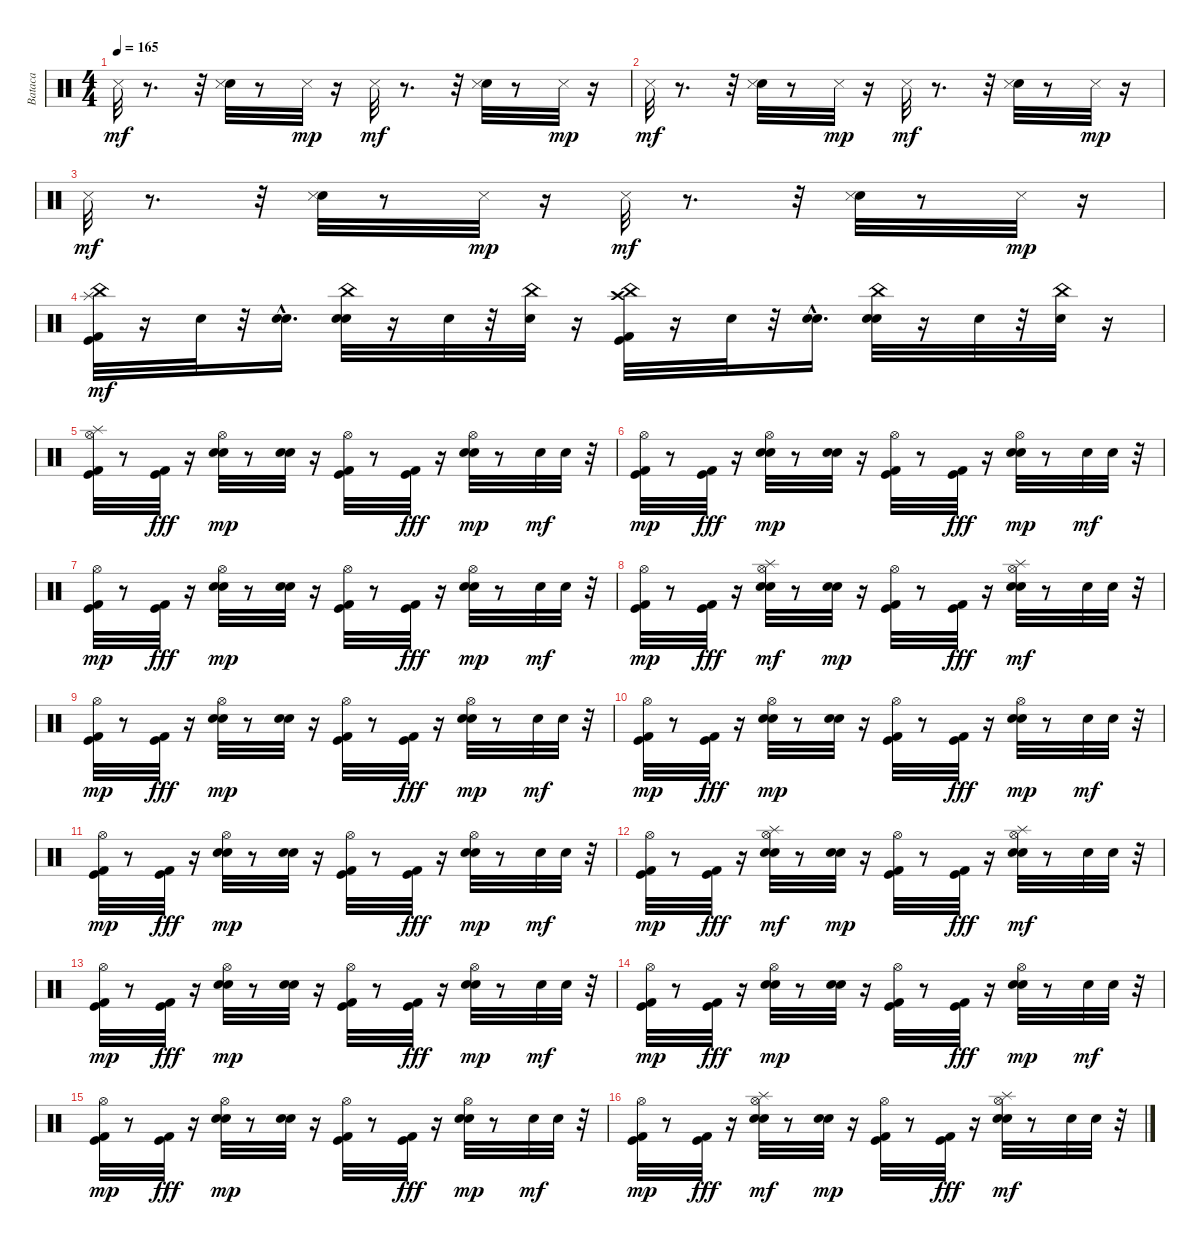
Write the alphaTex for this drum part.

\track ("Bataca" "Bataca") {instrument percussion}
\staff {score}
\articulation defaults
\ts (4 4)
\tempo 165
\clef neutral
\ks c "Snare (side stick) 3".32{dy mf}
r.8{d} r.32 ("Hand Clap (hit)" "Snare (side stick) 3").32 r.8 "Snare (side stick) 3".32{dy mp} r.16 "Snare (side stick) 3".32{dy mf} r.8{d} r.32 ("Hand Clap (hit)" "Snare (side stick) 3").32 r.8 "Snare (side stick) 3".32{dy mp} r.16 |
"Snare (side stick) 3".32{dy mf} r.8{d} r.32 ("Hand Clap (hit)" "Snare (side stick) 3").32 r.8 "Snare (side stick) 3".32{dy mp} r.16 "Snare (side stick) 3".32{dy mf} r.8{d} r.32 ("Hand Clap (hit)" "Snare (side stick) 3").32 r.8 "Snare (side stick) 3".32{dy mp} r.16 |
"Snare (side stick) 3".32{dy mf} r.8{d} r.32 ("Hand Clap (hit)" "Snare (side stick) 3").32 r.8 "Snare (side stick) 3".32{dy mp} r.16 "Snare (side stick) 3".32{dy mf} r.8{d} r.32 ("Hand Clap (hit)" "Snare (side stick) 3").32 r.8 "Snare (side stick) 3".32{dy mp} r.16 |
("Kick (hit) 2" "Kick (hit)" "China (hit)" "Splash (hit)").32{dy mf} r.16 "Snare (hit) 2".32 r.32 ("Snare (hit) 2"{hac} "Snare (hit) 2").16{d} ("Snare (hit) 2" "China (hit)" "Hand Clap (hit)").32 r.16 "Snare (hit) 2".32 r.32 ("China (hit)" "Snare (hit) 2").32 r.16 ("China (hit)" "Kick (hit) 2" "Kick (hit)" "Crash high (hit)").32 r.16 "Snare (hit) 2".32 r.32 ("Snare (hit) 2"{hac} "Snare (hit) 2").16{d} ("China (hit)" "Hand Clap (hit)" "Snare (hit) 2").32 r.16 "Snare (hit) 2".32 r.32 ("China (hit)" "Snare (hit) 2").32 r.16 |
("Kick (hit) 2" "Kick (hit)" "Hi-Hat (open)" "Splash (hit)").32 r.8 ("Kick (hit) 2" "Kick (hit)").32{dy fff} r.16 ("Snare (hit) 2" "Hand Clap (hit)" "Hi-Hat (open)").32{dy mp} r.8 ("Snare (hit) 2" "Hand Clap (hit)").32 r.16 ("Kick (hit) 2" "Kick (hit)" "Hi-Hat (open)").32 r.8 ("Kick (hit) 2" "Kick (hit)").32{dy fff} r.16 ("Snare (hit) 2" "Hand Clap (hit)" "Hi-Hat (open)").32{dy mp} r.8 "Snare (hit) 2".32{dy mf} "Hand Clap (hit)".32 r.32 |
("Kick (hit) 2" "Kick (hit)" "Hi-Hat (open)").32{dy mp} r.8 ("Kick (hit) 2" "Kick (hit)").32{dy fff} r.16 ("Snare (hit) 2" "Hand Clap (hit)" "Hi-Hat (open)").32{dy mp} r.8 ("Snare (hit) 2" "Hand Clap (hit)").32 r.16 ("Kick (hit) 2" "Kick (hit)" "Hi-Hat (open)").32 r.8 ("Kick (hit) 2" "Kick (hit)").32{dy fff} r.16 ("Snare (hit) 2" "Hand Clap (hit)" "Hi-Hat (open)").32{dy mp} r.8 "Snare (hit) 2".32{dy mf} "Hand Clap (hit)".32 r.32 |
("Kick (hit) 2" "Kick (hit)" "Hi-Hat (open)").32{dy mp} r.8 ("Kick (hit) 2" "Kick (hit)").32{dy fff} r.16 ("Snare (hit) 2" "Hand Clap (hit)" "Hi-Hat (open)").32{dy mp} r.8 ("Snare (hit) 2" "Hand Clap (hit)").32 r.16 ("Kick (hit) 2" "Kick (hit)" "Hi-Hat (open)").32 r.8 ("Kick (hit) 2" "Kick (hit)").32{dy fff} r.16 ("Snare (hit) 2" "Hand Clap (hit)" "Hi-Hat (open)").32{dy mp} r.8 "Snare (hit) 2".32{dy mf} "Hand Clap (hit)".32 r.32 |
("Kick (hit) 2" "Kick (hit)" "Hi-Hat (open)").32{dy mp} r.8 ("Kick (hit) 2" "Kick (hit)").32{dy fff} r.16 ("Snare (hit) 2" "Hand Clap (hit)" "Hi-Hat (open)" "Splash (hit)").32{dy mf} r.8 ("Snare (hit) 2" "Hand Clap (hit)").32{dy mp} r.16 ("Kick (hit) 2" "Kick (hit)" "Hi-Hat (open)").32 r.8 ("Kick (hit) 2" "Kick (hit)").32{dy fff} r.16 ("Snare (hit) 2" "Hand Clap (hit)" "Hi-Hat (open)" "Splash (hit)").32{dy mf} r.8 "Snare (hit) 2".32 "Hand Clap (hit)".32 r.32 |
("Kick (hit) 2" "Kick (hit)" "Hi-Hat (open)").32{dy mp} r.8 ("Kick (hit) 2" "Kick (hit)").32{dy fff} r.16 ("Snare (hit) 2" "Hand Clap (hit)" "Hi-Hat (open)").32{dy mp} r.8 ("Snare (hit) 2" "Hand Clap (hit)").32 r.16 ("Kick (hit) 2" "Kick (hit)" "Hi-Hat (open)").32 r.8 ("Kick (hit) 2" "Kick (hit)").32{dy fff} r.16 ("Snare (hit) 2" "Hand Clap (hit)" "Hi-Hat (open)").32{dy mp} r.8 "Snare (hit) 2".32{dy mf} "Hand Clap (hit)".32 r.32 |
("Kick (hit) 2" "Kick (hit)" "Hi-Hat (open)").32{dy mp} r.8 ("Kick (hit) 2" "Kick (hit)").32{dy fff} r.16 ("Snare (hit) 2" "Hand Clap (hit)" "Hi-Hat (open)").32{dy mp} r.8 ("Snare (hit) 2" "Hand Clap (hit)").32 r.16 ("Kick (hit) 2" "Kick (hit)" "Hi-Hat (open)").32 r.8 ("Kick (hit) 2" "Kick (hit)").32{dy fff} r.16 ("Snare (hit) 2" "Hand Clap (hit)" "Hi-Hat (open)").32{dy mp} r.8 "Snare (hit) 2".32{dy mf} "Hand Clap (hit)".32 r.32 |
("Kick (hit) 2" "Kick (hit)" "Hi-Hat (open)").32{dy mp} r.8 ("Kick (hit) 2" "Kick (hit)").32{dy fff} r.16 ("Snare (hit) 2" "Hand Clap (hit)" "Hi-Hat (open)").32{dy mp} r.8 ("Snare (hit) 2" "Hand Clap (hit)").32 r.16 ("Kick (hit) 2" "Kick (hit)" "Hi-Hat (open)").32 r.8 ("Kick (hit) 2" "Kick (hit)").32{dy fff} r.16 ("Snare (hit) 2" "Hand Clap (hit)" "Hi-Hat (open)").32{dy mp} r.8 "Snare (hit) 2".32{dy mf} "Hand Clap (hit)".32 r.32 |
("Kick (hit) 2" "Kick (hit)" "Hi-Hat (open)").32{dy mp} r.8 ("Kick (hit) 2" "Kick (hit)").32{dy fff} r.16 ("Snare (hit) 2" "Hand Clap (hit)" "Hi-Hat (open)" "Splash (hit)").32{dy mf} r.8 ("Snare (hit) 2" "Hand Clap (hit)").32{dy mp} r.16 ("Kick (hit) 2" "Kick (hit)" "Hi-Hat (open)").32 r.8 ("Kick (hit) 2" "Kick (hit)").32{dy fff} r.16 ("Snare (hit) 2" "Hand Clap (hit)" "Hi-Hat (open)" "Splash (hit)").32{dy mf} r.8 "Snare (hit) 2".32 "Hand Clap (hit)".32 r.32 |
("Kick (hit) 2" "Kick (hit)" "Hi-Hat (open)").32{dy mp} r.8 ("Kick (hit) 2" "Kick (hit)").32{dy fff} r.16 ("Snare (hit) 2" "Hand Clap (hit)" "Hi-Hat (open)").32{dy mp} r.8 ("Snare (hit) 2" "Hand Clap (hit)").32 r.16 ("Kick (hit) 2" "Kick (hit)" "Hi-Hat (open)").32 r.8 ("Kick (hit) 2" "Kick (hit)").32{dy fff} r.16 ("Snare (hit) 2" "Hand Clap (hit)" "Hi-Hat (open)").32{dy mp} r.8 "Snare (hit) 2".32{dy mf} "Hand Clap (hit)".32 r.32 |
("Kick (hit) 2" "Kick (hit)" "Hi-Hat (open)").32{dy mp} r.8 ("Kick (hit) 2" "Kick (hit)").32{dy fff} r.16 ("Snare (hit) 2" "Hand Clap (hit)" "Hi-Hat (open)").32{dy mp} r.8 ("Snare (hit) 2" "Hand Clap (hit)").32 r.16 ("Kick (hit) 2" "Kick (hit)" "Hi-Hat (open)").32 r.8 ("Kick (hit) 2" "Kick (hit)").32{dy fff} r.16 ("Snare (hit) 2" "Hand Clap (hit)" "Hi-Hat (open)").32{dy mp} r.8 "Snare (hit) 2".32{dy mf} "Hand Clap (hit)".32 r.32 |
("Kick (hit) 2" "Kick (hit)" "Hi-Hat (open)").32{dy mp} r.8 ("Kick (hit) 2" "Kick (hit)").32{dy fff} r.16 ("Snare (hit) 2" "Hand Clap (hit)" "Hi-Hat (open)").32{dy mp} r.8 ("Snare (hit) 2" "Hand Clap (hit)").32 r.16 ("Kick (hit) 2" "Kick (hit)" "Hi-Hat (open)").32 r.8 ("Kick (hit) 2" "Kick (hit)").32{dy fff} r.16 ("Snare (hit) 2" "Hand Clap (hit)" "Hi-Hat (open)").32{dy mp} r.8 "Snare (hit) 2".32{dy mf} "Hand Clap (hit)".32 r.32 |
("Kick (hit) 2" "Kick (hit)" "Hi-Hat (open)").32{dy mp} r.8 ("Kick (hit) 2" "Kick (hit)").32{dy fff} r.16 ("Snare (hit) 2" "Hand Clap (hit)" "Hi-Hat (open)" "Splash (hit)").32{dy mf} r.8 ("Snare (hit) 2" "Hand Clap (hit)").32{dy mp} r.16 ("Kick (hit) 2" "Kick (hit)" "Hi-Hat (open)").32 r.8 ("Kick (hit) 2" "Kick (hit)").32{dy fff} r.16 ("Snare (hit) 2" "Hand Clap (hit)" "Hi-Hat (open)" "Splash (hit)").32{dy mf} r.8 "Snare (hit) 2".32 "Hand Clap (hit)".32 r.32
